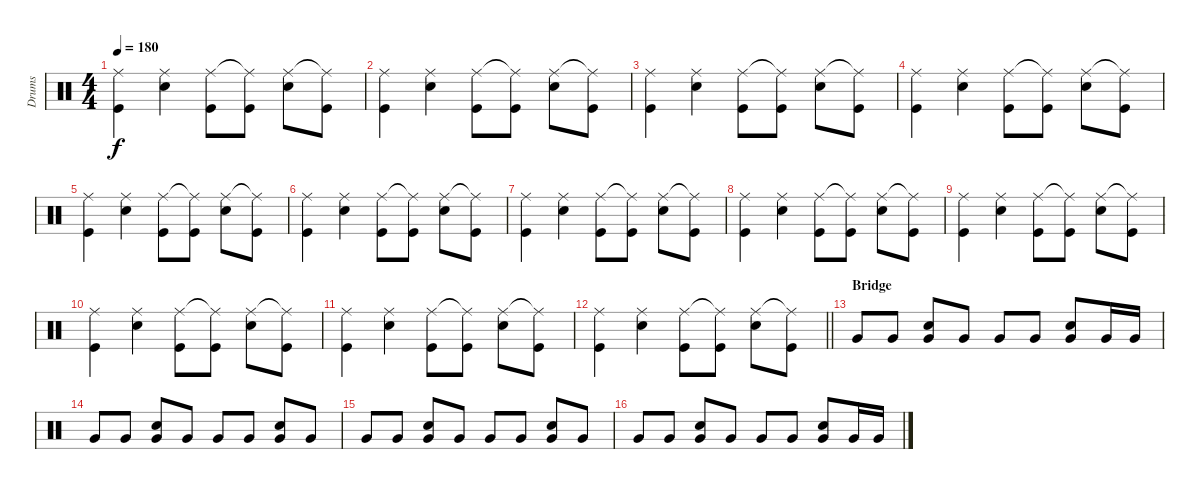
\track ("Drums" "Drums") {instrument percussion}
\staff {score}
\articulation defaults
\ts (4 4)
\tempo 180
\clef neutral
\ks c
("Kick (hit)" "Ride (middle)").4{dy f} ("Snare (hit) 2" "Ride (middle)").4 ("Kick (hit)" "Ride (middle)").8 ("Kick (hit)" "Ride (middle)"{t}).8 ("Snare (hit) 2" "Ride (middle)").8 ("Kick (hit)" "Ride (middle)"{t}).8 |
("Kick (hit)" "Ride (middle)").4 ("Snare (hit) 2" "Ride (middle)").4 ("Kick (hit)" "Ride (middle)").8 ("Kick (hit)" "Ride (middle)"{t}).8 ("Snare (hit) 2" "Ride (middle)").8 ("Kick (hit)" "Ride (middle)"{t}).8 |
("Kick (hit)" "Ride (middle)").4 ("Snare (hit) 2" "Ride (middle)").4 ("Kick (hit)" "Ride (middle)").8 ("Kick (hit)" "Ride (middle)"{t}).8 ("Snare (hit) 2" "Ride (middle)").8 ("Kick (hit)" "Ride (middle)"{t}).8 |
("Kick (hit)" "Ride (middle)").4 ("Snare (hit) 2" "Ride (middle)").4 ("Kick (hit)" "Ride (middle)").8 ("Kick (hit)" "Ride (middle)"{t}).8 ("Snare (hit) 2" "Ride (middle)").8 ("Kick (hit)" "Ride (middle)"{t}).8 |
("Kick (hit)" "Ride (middle)").4 ("Snare (hit) 2" "Ride (middle)").4 ("Kick (hit)" "Ride (middle)").8 ("Kick (hit)" "Ride (middle)"{t}).8 ("Snare (hit) 2" "Ride (middle)").8 ("Kick (hit)" "Ride (middle)"{t}).8 |
("Kick (hit)" "Ride (middle)").4 ("Snare (hit) 2" "Ride (middle)").4 ("Kick (hit)" "Ride (middle)").8 ("Kick (hit)" "Ride (middle)"{t}).8 ("Snare (hit) 2" "Ride (middle)").8 ("Kick (hit)" "Ride (middle)"{t}).8 |
("Kick (hit)" "Ride (middle)").4 ("Snare (hit) 2" "Ride (middle)").4 ("Kick (hit)" "Ride (middle)").8 ("Kick (hit)" "Ride (middle)"{t}).8 ("Snare (hit) 2" "Ride (middle)").8 ("Kick (hit)" "Ride (middle)"{t}).8 |
("Kick (hit)" "Ride (middle)").4 ("Snare (hit) 2" "Ride (middle)").4 ("Kick (hit)" "Ride (middle)").8 ("Kick (hit)" "Ride (middle)"{t}).8 ("Snare (hit) 2" "Ride (middle)").8 ("Kick (hit)" "Ride (middle)"{t}).8 |
("Kick (hit)" "Ride (middle)").4 ("Snare (hit) 2" "Ride (middle)").4 ("Kick (hit)" "Ride (middle)").8 ("Kick (hit)" "Ride (middle)"{t}).8 ("Snare (hit) 2" "Ride (middle)").8 ("Kick (hit)" "Ride (middle)"{t}).8 |
("Kick (hit)" "Ride (middle)").4 ("Snare (hit) 2" "Ride (middle)").4 ("Kick (hit)" "Ride (middle)").8 ("Kick (hit)" "Ride (middle)"{t}).8 ("Snare (hit) 2" "Ride (middle)").8 ("Kick (hit)" "Ride (middle)"{t}).8 |
("Kick (hit)" "Ride (middle)").4 ("Snare (hit) 2" "Ride (middle)").4 ("Kick (hit)" "Ride (middle)").8 ("Kick (hit)" "Ride (middle)"{t}).8 ("Snare (hit) 2" "Ride (middle)").8 ("Kick (hit)" "Ride (middle)"{t}).8 |
\barLineRight lightlight
("Kick (hit)" "Ride (middle)").4 ("Snare (hit) 2" "Ride (middle)").4 ("Kick (hit)" "Ride (middle)").8 ("Kick (hit)" "Ride (middle)"{t}).8 ("Snare (hit) 2" "Ride (middle)").8 ("Kick (hit)" "Ride (middle)"{t}).8 |
\section ("" "Bridge")
"Very Low Tom (hit)".8 "Very Low Tom (hit)".8 ("Very Low Tom (hit)" "Snare (hit) 2").8 "Very Low Tom (hit)".8 "Very Low Tom (hit)".8 "Very Low Tom (hit)".8 ("Very Low Tom (hit)" "Snare (hit) 2").8 "Very Low Tom (hit)".16 "Very Low Tom (hit)".16 |
"Very Low Tom (hit)".8 "Very Low Tom (hit)".8 ("Very Low Tom (hit)" "Snare (hit) 2").8 "Very Low Tom (hit)".8 "Very Low Tom (hit)".8 "Very Low Tom (hit)".8 ("Very Low Tom (hit)" "Snare (hit) 2").8 "Very Low Tom (hit)".8 |
"Very Low Tom (hit)".8 "Very Low Tom (hit)".8 ("Very Low Tom (hit)" "Snare (hit) 2").8 "Very Low Tom (hit)".8 "Very Low Tom (hit)".8 "Very Low Tom (hit)".8 ("Very Low Tom (hit)" "Snare (hit) 2").8 "Very Low Tom (hit)".8 |
"Very Low Tom (hit)".8 "Very Low Tom (hit)".8 ("Very Low Tom (hit)" "Snare (hit) 2").8 "Very Low Tom (hit)".8 "Very Low Tom (hit)".8 "Very Low Tom (hit)".8 ("Very Low Tom (hit)" "Snare (hit) 2").8 "Very Low Tom (hit)".16 "Very Low Tom (hit)".16
